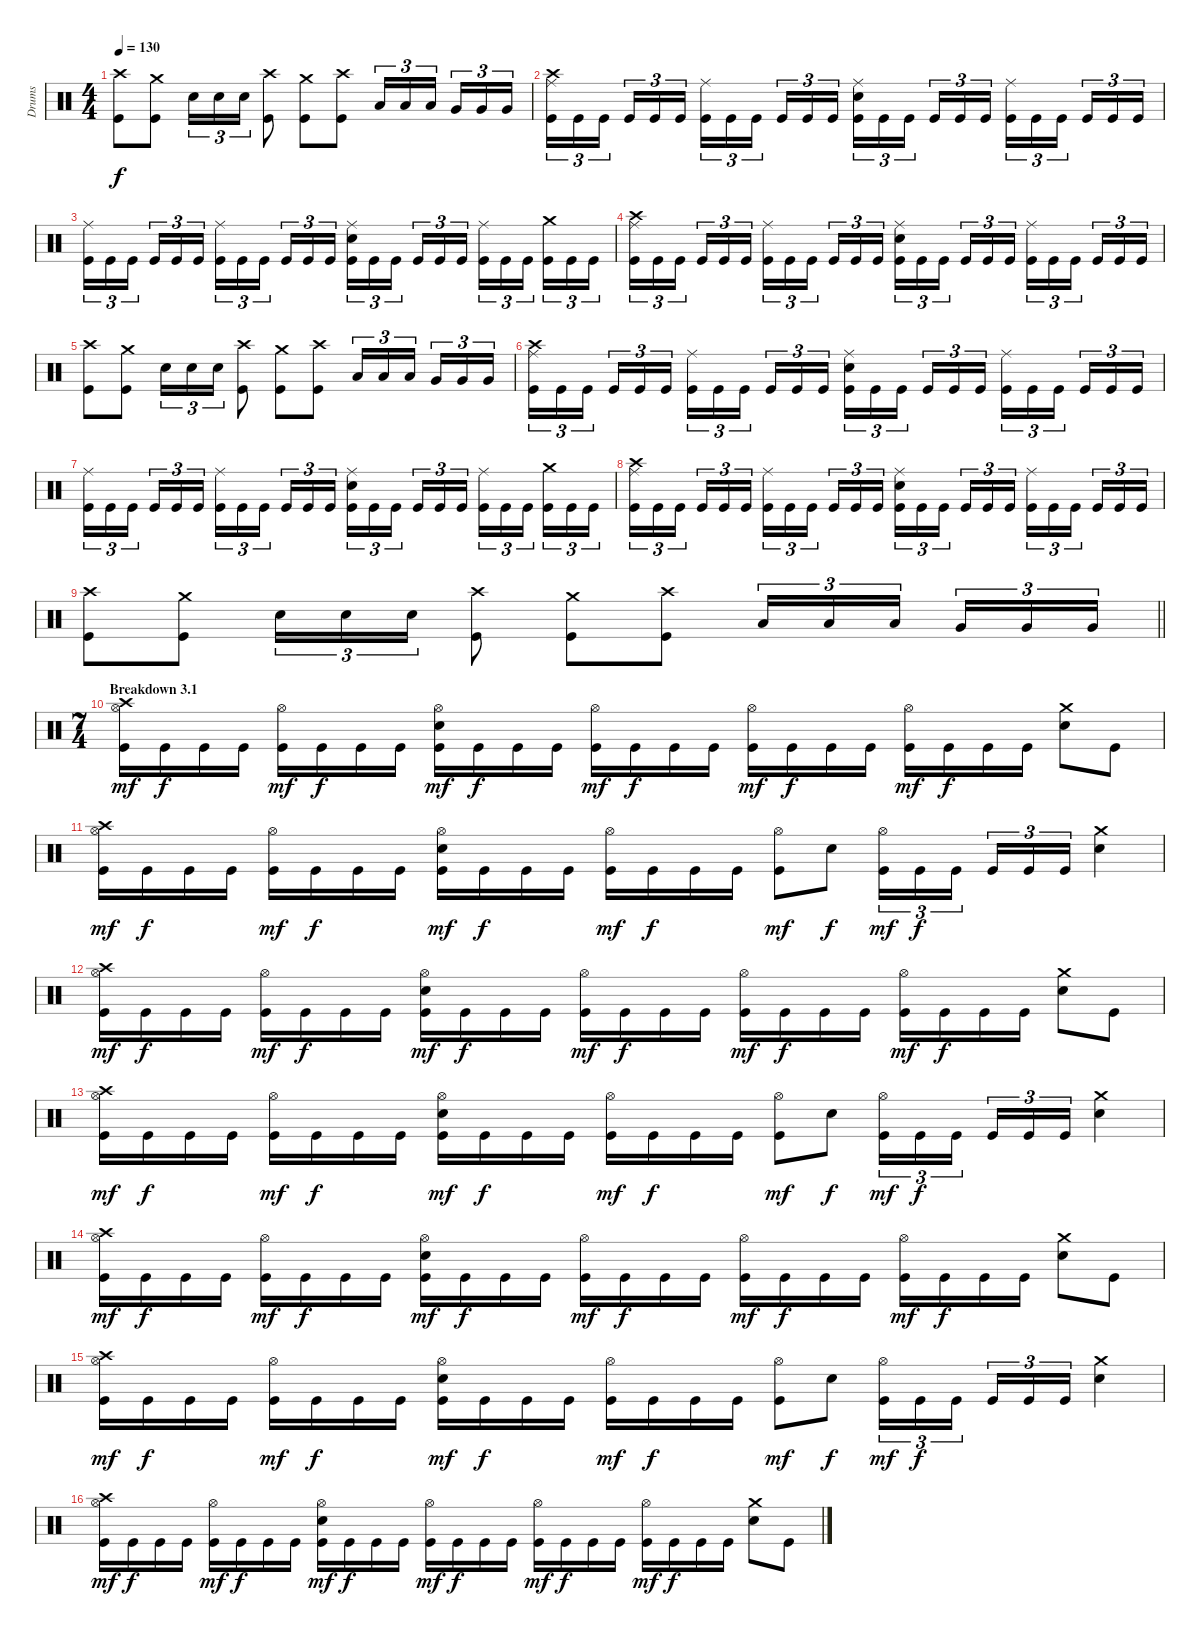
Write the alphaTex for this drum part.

\track ("Drums" "Drums") {instrument percussion}
\staff {score}
\articulation defaults
\ts (4 4)
\tempo 130
\clef neutral
\ks c
("Crash high (hit)" "Kick (hit)").8{dy f} ("Crash medium (hit)" "Kick (hit)").8 "Electric Snare (hit)".16{tu (3 2)} "Electric Snare (hit)".16{tu (3 2)} "Electric Snare (hit)".16{tu (3 2)} ("Crash high (hit)" "Kick (hit)").8 ("Crash medium (hit)" "Kick (hit)").8 ("Crash high (hit)" "Kick (hit)").8 "Low Tom (hit)".16{tu (3 2)} "Low Tom (hit)".16{tu (3 2)} "Low Tom (hit)".16{tu (3 2) beam splitsecondary} "Very Low Tom (hit)".16{tu (3 2)} "Very Low Tom (hit)".16{tu (3 2)} "Very Low Tom (hit)".16{tu (3 2)} |
("Crash high (hit)" "Ride (middle)" "Kick (hit)").16{tu (3 2)} "Kick (hit)".16{tu (3 2)} "Kick (hit)".16{tu (3 2) beam splitsecondary} "Kick (hit)".16{tu (3 2)} "Kick (hit)".16{tu (3 2)} "Kick (hit)".16{tu (3 2)} ("Ride (middle)" "Kick (hit)").16{tu (3 2)} "Kick (hit)".16{tu (3 2)} "Kick (hit)".16{tu (3 2) beam splitsecondary} "Kick (hit)".16{tu (3 2)} "Kick (hit)".16{tu (3 2)} "Kick (hit)".16{tu (3 2)} ("Ride (middle)" "Electric Snare (hit)" "Kick (hit)").16{tu (3 2)} "Kick (hit)".16{tu (3 2)} "Kick (hit)".16{tu (3 2) beam splitsecondary} "Kick (hit)".16{tu (3 2)} "Kick (hit)".16{tu (3 2)} "Kick (hit)".16{tu (3 2)} ("Ride (middle)" "Kick (hit)").16{tu (3 2)} "Kick (hit)".16{tu (3 2)} "Kick (hit)".16{tu (3 2) beam splitsecondary} "Kick (hit)".16{tu (3 2)} "Kick (hit)".16{tu (3 2)} "Kick (hit)".16{tu (3 2)} |
("Ride (middle)" "Kick (hit)").16{tu (3 2)} "Kick (hit)".16{tu (3 2)} "Kick (hit)".16{tu (3 2) beam splitsecondary} "Kick (hit)".16{tu (3 2)} "Kick (hit)".16{tu (3 2)} "Kick (hit)".16{tu (3 2)} ("Ride (middle)" "Kick (hit)").16{tu (3 2)} "Kick (hit)".16{tu (3 2)} "Kick (hit)".16{tu (3 2) beam splitsecondary} "Kick (hit)".16{tu (3 2)} "Kick (hit)".16{tu (3 2)} "Kick (hit)".16{tu (3 2)} ("Ride (middle)" "Electric Snare (hit)" "Kick (hit)").16{tu (3 2)} "Kick (hit)".16{tu (3 2)} "Kick (hit)".16{tu (3 2) beam splitsecondary} "Kick (hit)".16{tu (3 2)} "Kick (hit)".16{tu (3 2)} "Kick (hit)".16{tu (3 2)} ("Ride (middle)" "Kick (hit)").16{tu (3 2)} "Kick (hit)".16{tu (3 2)} "Kick (hit)".16{tu (3 2) beam splitsecondary} ("Crash medium (hit)" "Kick (hit)").16{tu (3 2)} "Kick (hit)".16{tu (3 2)} "Kick (hit)".16{tu (3 2)} |
("Crash high (hit)" "Ride (middle)" "Kick (hit)").16{tu (3 2)} "Kick (hit)".16{tu (3 2)} "Kick (hit)".16{tu (3 2) beam splitsecondary} "Kick (hit)".16{tu (3 2)} "Kick (hit)".16{tu (3 2)} "Kick (hit)".16{tu (3 2)} ("Ride (middle)" "Kick (hit)").16{tu (3 2)} "Kick (hit)".16{tu (3 2)} "Kick (hit)".16{tu (3 2) beam splitsecondary} "Kick (hit)".16{tu (3 2)} "Kick (hit)".16{tu (3 2)} "Kick (hit)".16{tu (3 2)} ("Ride (middle)" "Electric Snare (hit)" "Kick (hit)").16{tu (3 2)} "Kick (hit)".16{tu (3 2)} "Kick (hit)".16{tu (3 2) beam splitsecondary} "Kick (hit)".16{tu (3 2)} "Kick (hit)".16{tu (3 2)} "Kick (hit)".16{tu (3 2)} ("Ride (middle)" "Kick (hit)").16{tu (3 2)} "Kick (hit)".16{tu (3 2)} "Kick (hit)".16{tu (3 2) beam splitsecondary} "Kick (hit)".16{tu (3 2)} "Kick (hit)".16{tu (3 2)} "Kick (hit)".16{tu (3 2)} |
("Crash high (hit)" "Kick (hit)").8 ("Crash medium (hit)" "Kick (hit)").8 "Electric Snare (hit)".16{tu (3 2)} "Electric Snare (hit)".16{tu (3 2)} "Electric Snare (hit)".16{tu (3 2)} ("Crash high (hit)" "Kick (hit)").8 ("Crash medium (hit)" "Kick (hit)").8 ("Crash high (hit)" "Kick (hit)").8 "Low Tom (hit)".16{tu (3 2)} "Low Tom (hit)".16{tu (3 2)} "Low Tom (hit)".16{tu (3 2) beam splitsecondary} "Very Low Tom (hit)".16{tu (3 2)} "Very Low Tom (hit)".16{tu (3 2)} "Very Low Tom (hit)".16{tu (3 2)} |
("Crash high (hit)" "Ride (middle)" "Kick (hit)").16{tu (3 2)} "Kick (hit)".16{tu (3 2)} "Kick (hit)".16{tu (3 2) beam splitsecondary} "Kick (hit)".16{tu (3 2)} "Kick (hit)".16{tu (3 2)} "Kick (hit)".16{tu (3 2)} ("Ride (middle)" "Kick (hit)").16{tu (3 2)} "Kick (hit)".16{tu (3 2)} "Kick (hit)".16{tu (3 2) beam splitsecondary} "Kick (hit)".16{tu (3 2)} "Kick (hit)".16{tu (3 2)} "Kick (hit)".16{tu (3 2)} ("Ride (middle)" "Electric Snare (hit)" "Kick (hit)").16{tu (3 2)} "Kick (hit)".16{tu (3 2)} "Kick (hit)".16{tu (3 2) beam splitsecondary} "Kick (hit)".16{tu (3 2)} "Kick (hit)".16{tu (3 2)} "Kick (hit)".16{tu (3 2)} ("Ride (middle)" "Kick (hit)").16{tu (3 2)} "Kick (hit)".16{tu (3 2)} "Kick (hit)".16{tu (3 2) beam splitsecondary} "Kick (hit)".16{tu (3 2)} "Kick (hit)".16{tu (3 2)} "Kick (hit)".16{tu (3 2)} |
("Ride (middle)" "Kick (hit)").16{tu (3 2)} "Kick (hit)".16{tu (3 2)} "Kick (hit)".16{tu (3 2) beam splitsecondary} "Kick (hit)".16{tu (3 2)} "Kick (hit)".16{tu (3 2)} "Kick (hit)".16{tu (3 2)} ("Ride (middle)" "Kick (hit)").16{tu (3 2)} "Kick (hit)".16{tu (3 2)} "Kick (hit)".16{tu (3 2) beam splitsecondary} "Kick (hit)".16{tu (3 2)} "Kick (hit)".16{tu (3 2)} "Kick (hit)".16{tu (3 2)} ("Ride (middle)" "Electric Snare (hit)" "Kick (hit)").16{tu (3 2)} "Kick (hit)".16{tu (3 2)} "Kick (hit)".16{tu (3 2) beam splitsecondary} "Kick (hit)".16{tu (3 2)} "Kick (hit)".16{tu (3 2)} "Kick (hit)".16{tu (3 2)} ("Ride (middle)" "Kick (hit)").16{tu (3 2)} "Kick (hit)".16{tu (3 2)} "Kick (hit)".16{tu (3 2) beam splitsecondary} ("Crash medium (hit)" "Kick (hit)").16{tu (3 2)} "Kick (hit)".16{tu (3 2)} "Kick (hit)".16{tu (3 2)} |
("Crash high (hit)" "Ride (middle)" "Kick (hit)").16{tu (3 2)} "Kick (hit)".16{tu (3 2)} "Kick (hit)".16{tu (3 2) beam splitsecondary} "Kick (hit)".16{tu (3 2)} "Kick (hit)".16{tu (3 2)} "Kick (hit)".16{tu (3 2)} ("Ride (middle)" "Kick (hit)").16{tu (3 2)} "Kick (hit)".16{tu (3 2)} "Kick (hit)".16{tu (3 2) beam splitsecondary} "Kick (hit)".16{tu (3 2)} "Kick (hit)".16{tu (3 2)} "Kick (hit)".16{tu (3 2)} ("Ride (middle)" "Electric Snare (hit)" "Kick (hit)").16{tu (3 2)} "Kick (hit)".16{tu (3 2)} "Kick (hit)".16{tu (3 2) beam splitsecondary} "Kick (hit)".16{tu (3 2)} "Kick (hit)".16{tu (3 2)} "Kick (hit)".16{tu (3 2)} ("Ride (middle)" "Kick (hit)").16{tu (3 2)} "Kick (hit)".16{tu (3 2)} "Kick (hit)".16{tu (3 2) beam splitsecondary} "Kick (hit)".16{tu (3 2)} "Kick (hit)".16{tu (3 2)} "Kick (hit)".16{tu (3 2)} |
\barLineRight lightlight
("Crash high (hit)" "Kick (hit)").8 ("Crash medium (hit)" "Kick (hit)").8 "Electric Snare (hit)".16{tu (3 2)} "Electric Snare (hit)".16{tu (3 2)} "Electric Snare (hit)".16{tu (3 2)} ("Crash high (hit)" "Kick (hit)").8 ("Crash medium (hit)" "Kick (hit)").8 ("Crash high (hit)" "Kick (hit)").8 "Low Tom (hit)".16{tu (3 2)} "Low Tom (hit)".16{tu (3 2)} "Low Tom (hit)".16{tu (3 2) beam splitsecondary} "Very Low Tom (hit)".16{tu (3 2)} "Very Low Tom (hit)".16{tu (3 2)} "Very Low Tom (hit)".16{tu (3 2)} |
\ts (7 4)
\section ("" "Breakdown 3.1")
("Crash high (hit)" "Hi-Hat (open)" "Kick (hit)").16{dy mf} "Kick (hit)".16{dy f} "Kick (hit)".16 "Kick (hit)".16 ("Hi-Hat (open)" "Kick (hit)").16{dy mf} "Kick (hit)".16{dy f} "Kick (hit)".16 "Kick (hit)".16 ("Hi-Hat (open)" "Electric Snare (hit)" "Kick (hit)").16{dy mf} "Kick (hit)".16{dy f} "Kick (hit)".16 "Kick (hit)".16 ("Hi-Hat (open)" "Kick (hit)").16{dy mf} "Kick (hit)".16{dy f} "Kick (hit)".16 "Kick (hit)".16 ("Hi-Hat (open)" "Kick (hit)").16{dy mf} "Kick (hit)".16{dy f} "Kick (hit)".16 "Kick (hit)".16 ("Hi-Hat (open)" "Kick (hit)").16{dy mf} "Kick (hit)".16{dy f} "Kick (hit)".16 "Kick (hit)".16 ("Crash medium (hit)" "Electric Snare (hit)").8 "Kick (hit)".8 |
("Crash high (hit)" "Hi-Hat (open)" "Kick (hit)").16{dy mf} "Kick (hit)".16{dy f} "Kick (hit)".16 "Kick (hit)".16 ("Hi-Hat (open)" "Kick (hit)").16{dy mf} "Kick (hit)".16{dy f} "Kick (hit)".16 "Kick (hit)".16 ("Hi-Hat (open)" "Electric Snare (hit)" "Kick (hit)").16{dy mf} "Kick (hit)".16{dy f} "Kick (hit)".16 "Kick (hit)".16 ("Hi-Hat (open)" "Kick (hit)").16{dy mf} "Kick (hit)".16{dy f} "Kick (hit)".16 "Kick (hit)".16 ("Hi-Hat (open)" "Kick (hit)").8{dy mf} "Electric Snare (hit)".8{dy f} ("Hi-Hat (open)" "Kick (hit)").16{tu (3 2) dy mf} "Kick (hit)".16{tu (3 2) dy f} "Kick (hit)".16{tu (3 2) beam splitsecondary} "Kick (hit)".16{tu (3 2)} "Kick (hit)".16{tu (3 2)} "Kick (hit)".16{tu (3 2)} ("Crash medium (hit)" "Electric Snare (hit)").4 |
("Crash high (hit)" "Hi-Hat (open)" "Kick (hit)").16{dy mf} "Kick (hit)".16{dy f} "Kick (hit)".16 "Kick (hit)".16 ("Hi-Hat (open)" "Kick (hit)").16{dy mf} "Kick (hit)".16{dy f} "Kick (hit)".16 "Kick (hit)".16 ("Hi-Hat (open)" "Electric Snare (hit)" "Kick (hit)").16{dy mf} "Kick (hit)".16{dy f} "Kick (hit)".16 "Kick (hit)".16 ("Hi-Hat (open)" "Kick (hit)").16{dy mf} "Kick (hit)".16{dy f} "Kick (hit)".16 "Kick (hit)".16 ("Hi-Hat (open)" "Kick (hit)").16{dy mf} "Kick (hit)".16{dy f} "Kick (hit)".16 "Kick (hit)".16 ("Hi-Hat (open)" "Kick (hit)").16{dy mf} "Kick (hit)".16{dy f} "Kick (hit)".16 "Kick (hit)".16 ("Crash medium (hit)" "Electric Snare (hit)").8 "Kick (hit)".8 |
("Crash high (hit)" "Hi-Hat (open)" "Kick (hit)").16{dy mf} "Kick (hit)".16{dy f} "Kick (hit)".16 "Kick (hit)".16 ("Hi-Hat (open)" "Kick (hit)").16{dy mf} "Kick (hit)".16{dy f} "Kick (hit)".16 "Kick (hit)".16 ("Hi-Hat (open)" "Electric Snare (hit)" "Kick (hit)").16{dy mf} "Kick (hit)".16{dy f} "Kick (hit)".16 "Kick (hit)".16 ("Hi-Hat (open)" "Kick (hit)").16{dy mf} "Kick (hit)".16{dy f} "Kick (hit)".16 "Kick (hit)".16 ("Hi-Hat (open)" "Kick (hit)").8{dy mf} "Electric Snare (hit)".8{dy f} ("Hi-Hat (open)" "Kick (hit)").16{tu (3 2) dy mf} "Kick (hit)".16{tu (3 2) dy f} "Kick (hit)".16{tu (3 2) beam splitsecondary} "Kick (hit)".16{tu (3 2)} "Kick (hit)".16{tu (3 2)} "Kick (hit)".16{tu (3 2)} ("Crash medium (hit)" "Electric Snare (hit)").4 |
("Crash high (hit)" "Hi-Hat (open)" "Kick (hit)").16{dy mf} "Kick (hit)".16{dy f} "Kick (hit)".16 "Kick (hit)".16 ("Hi-Hat (open)" "Kick (hit)").16{dy mf} "Kick (hit)".16{dy f} "Kick (hit)".16 "Kick (hit)".16 ("Hi-Hat (open)" "Electric Snare (hit)" "Kick (hit)").16{dy mf} "Kick (hit)".16{dy f} "Kick (hit)".16 "Kick (hit)".16 ("Hi-Hat (open)" "Kick (hit)").16{dy mf} "Kick (hit)".16{dy f} "Kick (hit)".16 "Kick (hit)".16 ("Hi-Hat (open)" "Kick (hit)").16{dy mf} "Kick (hit)".16{dy f} "Kick (hit)".16 "Kick (hit)".16 ("Hi-Hat (open)" "Kick (hit)").16{dy mf} "Kick (hit)".16{dy f} "Kick (hit)".16 "Kick (hit)".16 ("Crash medium (hit)" "Electric Snare (hit)").8 "Kick (hit)".8 |
("Crash high (hit)" "Hi-Hat (open)" "Kick (hit)").16{dy mf} "Kick (hit)".16{dy f} "Kick (hit)".16 "Kick (hit)".16 ("Hi-Hat (open)" "Kick (hit)").16{dy mf} "Kick (hit)".16{dy f} "Kick (hit)".16 "Kick (hit)".16 ("Hi-Hat (open)" "Electric Snare (hit)" "Kick (hit)").16{dy mf} "Kick (hit)".16{dy f} "Kick (hit)".16 "Kick (hit)".16 ("Hi-Hat (open)" "Kick (hit)").16{dy mf} "Kick (hit)".16{dy f} "Kick (hit)".16 "Kick (hit)".16 ("Hi-Hat (open)" "Kick (hit)").8{dy mf} "Electric Snare (hit)".8{dy f} ("Hi-Hat (open)" "Kick (hit)").16{tu (3 2) dy mf} "Kick (hit)".16{tu (3 2) dy f} "Kick (hit)".16{tu (3 2) beam splitsecondary} "Kick (hit)".16{tu (3 2)} "Kick (hit)".16{tu (3 2)} "Kick (hit)".16{tu (3 2)} ("Crash medium (hit)" "Electric Snare (hit)").4 |
("Crash high (hit)" "Hi-Hat (open)" "Kick (hit)").16{dy mf} "Kick (hit)".16{dy f} "Kick (hit)".16 "Kick (hit)".16 ("Hi-Hat (open)" "Kick (hit)").16{dy mf} "Kick (hit)".16{dy f} "Kick (hit)".16 "Kick (hit)".16 ("Hi-Hat (open)" "Electric Snare (hit)" "Kick (hit)").16{dy mf} "Kick (hit)".16{dy f} "Kick (hit)".16 "Kick (hit)".16 ("Hi-Hat (open)" "Kick (hit)").16{dy mf} "Kick (hit)".16{dy f} "Kick (hit)".16 "Kick (hit)".16 ("Hi-Hat (open)" "Kick (hit)").16{dy mf} "Kick (hit)".16{dy f} "Kick (hit)".16 "Kick (hit)".16 ("Hi-Hat (open)" "Kick (hit)").16{dy mf} "Kick (hit)".16{dy f} "Kick (hit)".16 "Kick (hit)".16 ("Crash medium (hit)" "Electric Snare (hit)").8 "Kick (hit)".8
